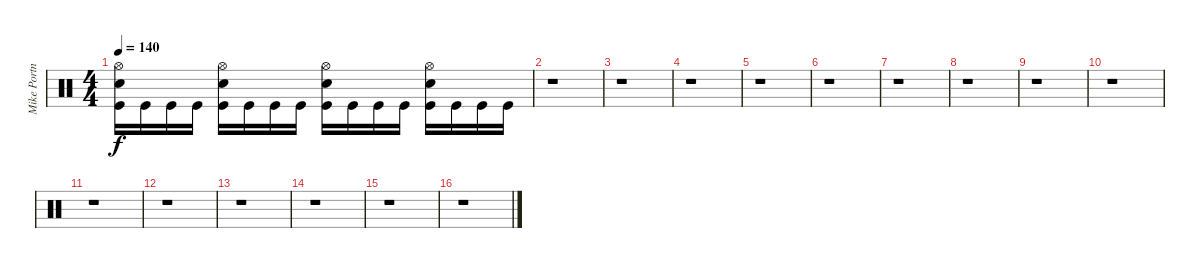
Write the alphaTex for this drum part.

\track ("Mike Portnoy" "Mike Portn") {instrument percussion}
\staff {score}
\articulation defaults
\ts (4 4)
\tempo 140
\clef neutral
\ks c
("Hi-Hat (open)" "Kick (hit)" "Electric Snare (hit)").16{dy f} "Kick (hit)".16 "Kick (hit)".16 "Kick (hit)".16 ("Hi-Hat (open)" "Kick (hit)" "Electric Snare (hit)").16 "Kick (hit)".16 "Kick (hit)".16 "Kick (hit)".16 ("Hi-Hat (open)" "Kick (hit)" "Electric Snare (hit)").16 "Kick (hit)".16 "Kick (hit)".16 "Kick (hit)".16 ("Hi-Hat (open)" "Kick (hit)" "Electric Snare (hit)").16 "Kick (hit)".16 "Kick (hit)".16 "Kick (hit)".16 |
r.1 |
r.1 |
r.1 |
r.1 |
r.1 |
r.1 |
r.1 |
r.1 |
r.1 |
r.1 |
r.1 |
r.1 |
r.1 |
r.1 |
r.1
